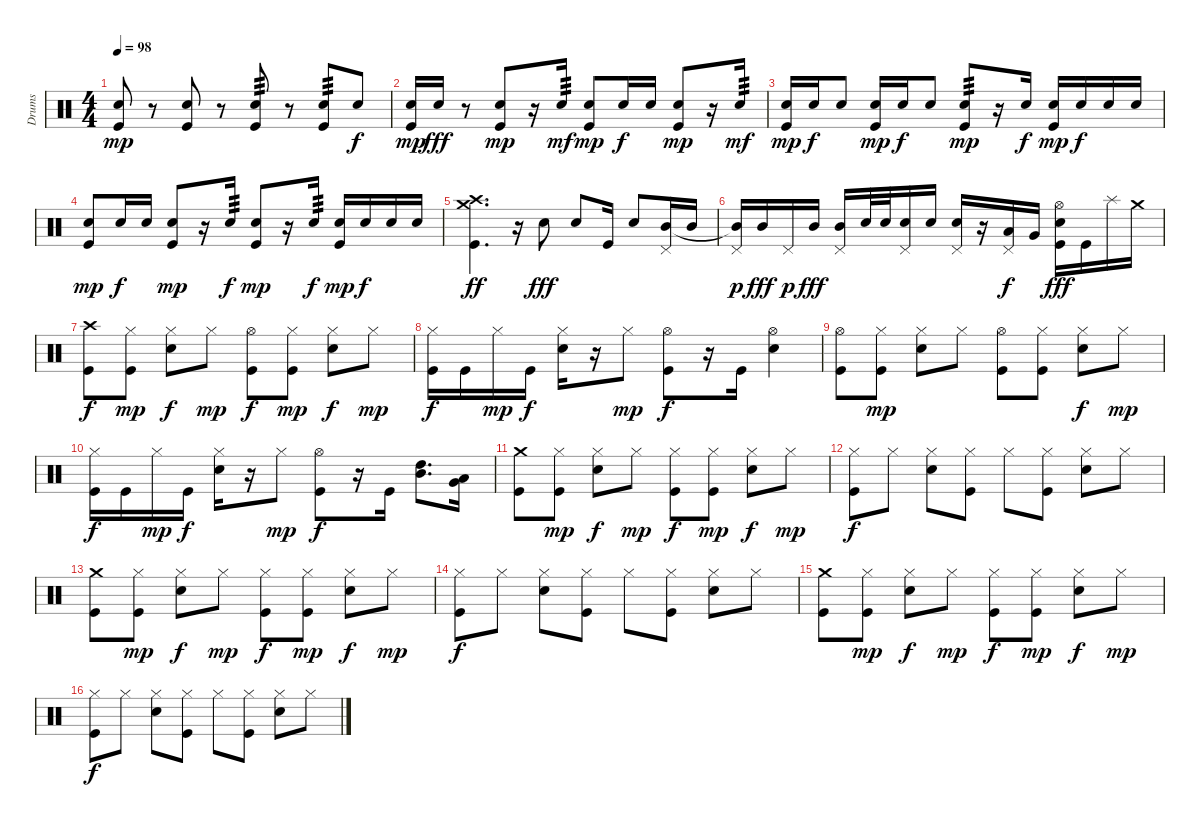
\track ("Drums" "Drums") {instrument percussion}
\staff {score}
\articulation defaults
\ts (4 4)
\tempo 98
\clef neutral
\ks c
("Snare (hit) 2" "Kick (hit)").8{dy mp} r.8 ("Snare (hit) 2" "Kick (hit)").8 r.8 ("Snare (hit) 2" "Kick (hit)").8{tp 3} r.8 ("Snare (hit) 2" "Kick (hit)").8{tp 3} "Snare (hit) 2".8{dy f} |
("Snare (hit) 2" "Kick (hit)").16{dy mp} "Snare (hit) 2".16{dy fff} r.8 ("Snare (hit) 2" "Kick (hit)").8{dy mp} r.16 "Snare (hit) 2".16{tp 3 dy mf} ("Snare (hit) 2" "Kick (hit)").8{dy mp} "Snare (hit) 2".16{dy f} "Snare (hit) 2".16 ("Snare (hit) 2" "Kick (hit)").8{dy mp} r.16 "Snare (hit) 2".16{tp 3 dy mf} |
("Snare (hit) 2" "Kick (hit)").16{dy mp} "Snare (hit) 2".16{dy f} "Snare (hit) 2".8 ("Snare (hit) 2" "Kick (hit)").16{dy mp} "Snare (hit) 2".16{dy f} "Snare (hit) 2".8 ("Snare (hit) 2" "Kick (hit)").8{tp 3 dy mp} r.16 "Snare (hit) 2".16{dy f} ("Snare (hit) 2" "Kick (hit)").16{dy mp} "Snare (hit) 2".16{dy f} "Snare (hit) 2".16 "Snare (hit) 2".16 |
("Snare (hit) 2" "Kick (hit)").8{dy mp} "Snare (hit) 2".16{dy f} "Snare (hit) 2".16 ("Snare (hit) 2" "Kick (hit)").8{dy mp} r.16 "Snare (hit) 2".16{tp 3 dy f} ("Snare (hit) 2" "Kick (hit)").8{dy mp} r.16 "Snare (hit) 2".16{tp 3 dy f} ("Snare (hit) 2" "Kick (hit)").16{dy mp} "Snare (hit) 2".16{dy f} "Snare (hit) 2".16 "Snare (hit) 2".16 |
("Crash medium (hit)" "Crash high (hit)" "Kick (hit)").4{d dy ff} r.16 "Snare (hit) 2".8{dy fff} "Snare (hit) 2".8 "Kick (hit)".16 "Snare (hit) 2".8 ("Pedal Hi-Hat (hit)" "Mid Tom (hit)").16 "Mid Tom (hit)".16 |
("Pedal Hi-Hat (hit)" "Mid Tom (hit)"{t}).16{dy p} "Mid Tom (hit)".16{dy fff} "Pedal Hi-Hat (hit)".16{dy p} "Mid Tom (hit)".16{dy fff} ("Pedal Hi-Hat (hit)" "Mid Tom (hit)").16 "Snare (hit) 2".32 "Snare (hit) 2".32 ("Pedal Hi-Hat (hit)" "Snare (hit) 2").16 "Snare (hit) 2".16 ("Pedal Hi-Hat (hit)" "Snare (hit) 2").16 r.16 ("Pedal Hi-Hat (hit)" "Low Tom (hit)").16{dy f} "Very Low Tom (hit)".16 ("Hi-Hat (open)" "Snare (hit) 2" "Kick (hit)").16{dy fff} "Kick (hit)".16 "Splash (hit)".16 "Crash medium (hit)".16 |
("Crash high (hit)" "Kick (hit)").8{dy f} ("Hi-Hat (closed)" "Kick (hit)").8{dy mp} ("Hi-Hat (closed)" "Snare (hit) 2").8{dy f} "Hi-Hat (closed)".8{dy mp} ("Hi-Hat (open)" "Kick (hit)").8{dy f} ("Hi-Hat (closed)" "Kick (hit)").8{dy mp} ("Hi-Hat (closed)" "Snare (hit) 2").8{dy f} "Hi-Hat (closed)".8{dy mp} |
("Hi-Hat (closed)" "Kick (hit)").16{dy f} "Kick (hit)".16 "Hi-Hat (closed)".16{dy mp} "Kick (hit)".16{dy f} ("Hi-Hat (closed)" "Snare (hit) 2").16 r.16 "Hi-Hat (closed)".8{dy mp} ("Hi-Hat (open)" "Kick (hit)").8{dy f} r.16 "Kick (hit)".16 ("Hi-Hat (open)" "Snare (hit) 2").4 |
("Hi-Hat (open)" "Kick (hit)").8 ("Hi-Hat (closed)" "Kick (hit)").8{dy mp} ("Hi-Hat (closed)" "Snare (hit) 2").8 "Hi-Hat (closed)".8 ("Hi-Hat (open)" "Kick (hit)").8 ("Hi-Hat (closed)" "Kick (hit)").8 ("Hi-Hat (closed)" "Snare (hit) 2").8{dy f} "Hi-Hat (closed)".8{dy mp} |
("Hi-Hat (closed)" "Kick (hit)").16{dy f} "Kick (hit)".16 "Hi-Hat (closed)".16{dy mp} "Kick (hit)".16{dy f} ("Hi-Hat (closed)" "Snare (hit) 2").16 r.16 "Hi-Hat (closed)".8{dy mp} ("Hi-Hat (open)" "Kick (hit)").8{dy f} r.16 "Kick (hit)".16 ("High Tom (hit)" "Mid Tom (hit)").8{d} ("Low Floor Tom (hit)" "Very Low Tom (hit)").16 |
("Crash medium (hit)" "Kick (hit)").8 ("Hi-Hat (closed)" "Kick (hit)").8{dy mp} ("Hi-Hat (closed)" "Snare (hit) 2").8{dy f} "Hi-Hat (closed)".8{dy mp} ("Hi-Hat (closed)" "Kick (hit)").8{dy f} ("Hi-Hat (closed)" "Kick (hit)").8{dy mp} ("Hi-Hat (closed)" "Snare (hit) 2").8{dy f} "Hi-Hat (closed)".8{dy mp} |
("Hi-Hat (closed)" "Kick (hit)").8{dy f} "Hi-Hat (closed)".8 ("Hi-Hat (closed)" "Snare (hit) 2").8 ("Hi-Hat (closed)" "Kick (hit)").8 "Hi-Hat (closed)".8 ("Hi-Hat (closed)" "Kick (hit)").8 ("Hi-Hat (closed)" "Snare (hit) 2").8 "Hi-Hat (closed)".8 |
("Crash medium (hit)" "Kick (hit)").8 ("Hi-Hat (closed)" "Kick (hit)").8{dy mp} ("Hi-Hat (closed)" "Snare (hit) 2").8{dy f} "Hi-Hat (closed)".8{dy mp} ("Hi-Hat (closed)" "Kick (hit)").8{dy f} ("Hi-Hat (closed)" "Kick (hit)").8{dy mp} ("Hi-Hat (closed)" "Snare (hit) 2").8{dy f} "Hi-Hat (closed)".8{dy mp} |
("Hi-Hat (closed)" "Kick (hit)").8{dy f} "Hi-Hat (closed)".8 ("Hi-Hat (closed)" "Snare (hit) 2").8 ("Hi-Hat (closed)" "Kick (hit)").8 "Hi-Hat (closed)".8 ("Hi-Hat (closed)" "Kick (hit)").8 ("Hi-Hat (closed)" "Snare (hit) 2").8 "Hi-Hat (closed)".8 |
("Crash medium (hit)" "Kick (hit)").8 ("Hi-Hat (closed)" "Kick (hit)").8{dy mp} ("Hi-Hat (closed)" "Snare (hit) 2").8{dy f} "Hi-Hat (closed)".8{dy mp} ("Hi-Hat (closed)" "Kick (hit)").8{dy f} ("Hi-Hat (closed)" "Kick (hit)").8{dy mp} ("Hi-Hat (closed)" "Snare (hit) 2").8{dy f} "Hi-Hat (closed)".8{dy mp} |
("Hi-Hat (closed)" "Kick (hit)").8{dy f} "Hi-Hat (closed)".8 ("Hi-Hat (closed)" "Snare (hit) 2").8 ("Hi-Hat (closed)" "Kick (hit)").8 "Hi-Hat (closed)".8 ("Hi-Hat (closed)" "Kick (hit)").8 ("Hi-Hat (closed)" "Snare (hit) 2").8 "Hi-Hat (closed)".8
